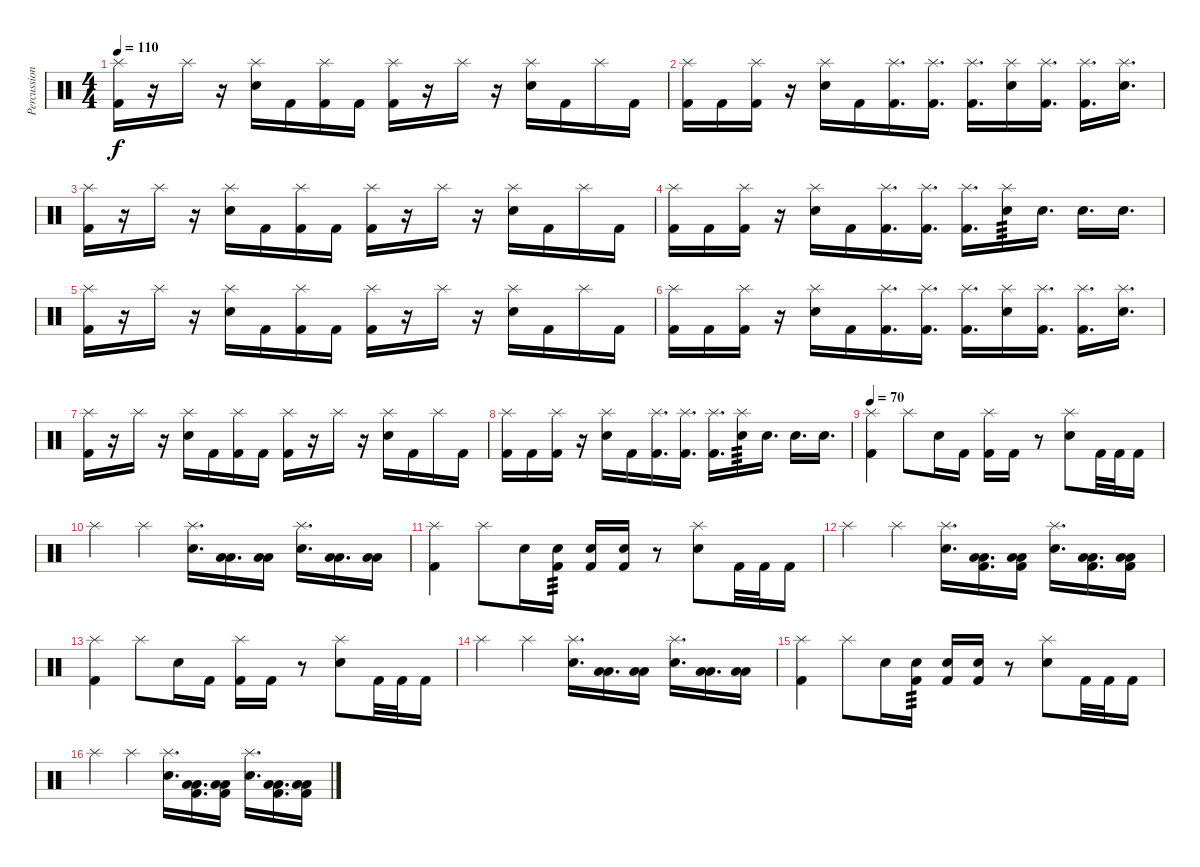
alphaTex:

\track ("Percussion" "Percussion") {instrument percussion}
\staff {score}
\articulation defaults
\ts (4 4)
\tempo 110
\clef neutral
\ks c
("Splash (hit)" "Kick (hit) 2").16{dy f} r.16 "Splash (hit)".16 r.16 ("Splash (hit)" "Electric Snare (hit)").16 "Kick (hit) 2".16 ("Splash (hit)" "Kick (hit) 2").16 "Kick (hit) 2".16 ("Splash (hit)" "Kick (hit) 2").16 r.16 "Splash (hit)".16 r.16 ("Splash (hit)" "Electric Snare (hit)").16 "Kick (hit) 2".16 "Splash (hit)".16 "Kick (hit) 2".16 |
("Splash (hit)" "Kick (hit) 2").16 "Kick (hit) 2".16 ("Splash (hit)" "Kick (hit) 2").16 r.16 ("Splash (hit)" "Electric Snare (hit)").16 "Kick (hit) 2".16 ("Splash (hit)" "Kick (hit) 2").16{d} ("Splash (hit)" "Kick (hit) 2").16{d} ("Splash (hit)" "Kick (hit) 2").16{d} ("Splash (hit)" "Electric Snare (hit)").16 ("Splash (hit)" "Kick (hit) 2").16{d} ("Splash (hit)" "Kick (hit) 2").16{d} ("Splash (hit)" "Electric Snare (hit)").16{d} |
("Splash (hit)" "Kick (hit) 2").16 r.16 "Splash (hit)".16 r.16 ("Splash (hit)" "Electric Snare (hit)").16 "Kick (hit) 2".16 ("Splash (hit)" "Kick (hit) 2").16 "Kick (hit) 2".16 ("Splash (hit)" "Kick (hit) 2").16 r.16 "Splash (hit)".16 r.16 ("Splash (hit)" "Electric Snare (hit)").16 "Kick (hit) 2".16 "Splash (hit)".16 "Kick (hit) 2".16 |
("Splash (hit)" "Kick (hit) 2").16 "Kick (hit) 2".16 ("Splash (hit)" "Kick (hit) 2").16 r.16 ("Splash (hit)" "Electric Snare (hit)").16 "Kick (hit) 2".16 ("Splash (hit)" "Kick (hit) 2").16{d} ("Splash (hit)" "Kick (hit) 2").16{d} ("Splash (hit)" "Kick (hit) 2").16{d} ("Splash (hit)" "Electric Snare (hit)").16{tp 3} "Electric Snare (hit)".16{d} "Electric Snare (hit)".16{d} "Electric Snare (hit)".16{d} |
("Splash (hit)" "Kick (hit) 2").16 r.16 "Splash (hit)".16 r.16 ("Splash (hit)" "Electric Snare (hit)").16 "Kick (hit) 2".16 ("Splash (hit)" "Kick (hit) 2").16 "Kick (hit) 2".16 ("Splash (hit)" "Kick (hit) 2").16 r.16 "Splash (hit)".16 r.16 ("Splash (hit)" "Electric Snare (hit)").16 "Kick (hit) 2".16 "Splash (hit)".16 "Kick (hit) 2".16 |
("Splash (hit)" "Kick (hit) 2").16 "Kick (hit) 2".16 ("Splash (hit)" "Kick (hit) 2").16 r.16 ("Splash (hit)" "Electric Snare (hit)").16 "Kick (hit) 2".16 ("Splash (hit)" "Kick (hit) 2").16{d} ("Splash (hit)" "Kick (hit) 2").16{d} ("Splash (hit)" "Kick (hit) 2").16{d} ("Splash (hit)" "Electric Snare (hit)").16 ("Splash (hit)" "Kick (hit) 2").16{d} ("Splash (hit)" "Kick (hit) 2").16{d} ("Splash (hit)" "Electric Snare (hit)").16{d} |
("Splash (hit)" "Kick (hit) 2").16 r.16 "Splash (hit)".16 r.16 ("Splash (hit)" "Electric Snare (hit)").16 "Kick (hit) 2".16 ("Splash (hit)" "Kick (hit) 2").16 "Kick (hit) 2".16 ("Splash (hit)" "Kick (hit) 2").16 r.16 "Splash (hit)".16 r.16 ("Splash (hit)" "Electric Snare (hit)").16 "Kick (hit) 2".16 "Splash (hit)".16 "Kick (hit) 2".16 |
("Splash (hit)" "Kick (hit) 2").16 "Kick (hit) 2".16 ("Splash (hit)" "Kick (hit) 2").16 r.16 ("Splash (hit)" "Electric Snare (hit)").16 "Kick (hit) 2".16 ("Splash (hit)" "Kick (hit) 2").16{d} ("Splash (hit)" "Kick (hit) 2").16{d} ("Splash (hit)" "Kick (hit) 2").16{d} ("Splash (hit)" "Electric Snare (hit)").16{tp 3} "Electric Snare (hit)".16{d} "Electric Snare (hit)".16{d} "Electric Snare (hit)".16{d} |
\tempo 70
("Splash (hit)" "Kick (hit) 2").4 "Splash (hit)".8 "Electric Snare (hit)".16 "Kick (hit) 2".16 ("Splash (hit)" "Kick (hit) 2").16 "Kick (hit) 2".16 r.8 ("Splash (hit)" "Electric Snare (hit)").8 "Kick (hit) 2".32 "Kick (hit) 2".32 "Kick (hit) 2".16 |
"Splash (hit)".4 "Splash (hit)".4 ("Splash (hit)" "Electric Snare (hit)").16{d} ("Low Tom (hit)" "Low Floor Tom (hit)").16{d} ("Low Tom (hit)" "Low Floor Tom (hit)").16 ("Splash (hit)" "Electric Snare (hit)").16{d} ("Low Tom (hit)" "Low Floor Tom (hit)").16{d} ("Low Tom (hit)" "Low Floor Tom (hit)").16 |
("Splash (hit)" "Kick (hit) 2").4 "Splash (hit)".8 "Electric Snare (hit)".16 ("Electric Snare (hit)" "Kick (hit) 2").16{tp 3} ("Electric Snare (hit)" "Kick (hit) 2").16 ("Electric Snare (hit)" "Kick (hit) 2").16 r.8 ("Splash (hit)" "Electric Snare (hit)").8 "Kick (hit) 2".32 "Kick (hit) 2".32 "Kick (hit) 2".16 |
"Splash (hit)".4 "Splash (hit)".4 ("Splash (hit)" "Electric Snare (hit)").16{d} ("Low Tom (hit)" "Low Floor Tom (hit)" "Kick (hit) 2").16{d} ("Low Tom (hit)" "Low Floor Tom (hit)" "Kick (hit) 2").16 ("Splash (hit)" "Electric Snare (hit)").16{d} ("Low Tom (hit)" "Low Floor Tom (hit)" "Kick (hit) 2").16{d} ("Low Tom (hit)" "Low Floor Tom (hit)" "Kick (hit) 2").16 |
("Splash (hit)" "Kick (hit) 2").4 "Splash (hit)".8 "Electric Snare (hit)".16 "Kick (hit) 2".16 ("Splash (hit)" "Kick (hit) 2").16 "Kick (hit) 2".16 r.8 ("Splash (hit)" "Electric Snare (hit)").8 "Kick (hit) 2".32 "Kick (hit) 2".32 "Kick (hit) 2".16 |
"Splash (hit)".4 "Splash (hit)".4 ("Splash (hit)" "Electric Snare (hit)").16{d} ("Low Tom (hit)" "Low Floor Tom (hit)").16{d} ("Low Tom (hit)" "Low Floor Tom (hit)").16 ("Splash (hit)" "Electric Snare (hit)").16{d} ("Low Tom (hit)" "Low Floor Tom (hit)").16{d} ("Low Tom (hit)" "Low Floor Tom (hit)").16 |
("Splash (hit)" "Kick (hit) 2").4 "Splash (hit)".8 "Electric Snare (hit)".16 ("Electric Snare (hit)" "Kick (hit) 2").16{tp 3} ("Electric Snare (hit)" "Kick (hit) 2").16 ("Electric Snare (hit)" "Kick (hit) 2").16 r.8 ("Splash (hit)" "Electric Snare (hit)").8 "Kick (hit) 2".32 "Kick (hit) 2".32 "Kick (hit) 2".16 |
"Splash (hit)".4 "Splash (hit)".4 ("Splash (hit)" "Electric Snare (hit)").16{d} ("Low Tom (hit)" "Low Floor Tom (hit)" "Kick (hit) 2").16{d} ("Low Tom (hit)" "Low Floor Tom (hit)" "Kick (hit) 2").16 ("Splash (hit)" "Electric Snare (hit)").16{d} ("Low Tom (hit)" "Low Floor Tom (hit)" "Kick (hit) 2").16{d} ("Low Tom (hit)" "Low Floor Tom (hit)" "Kick (hit) 2").16
